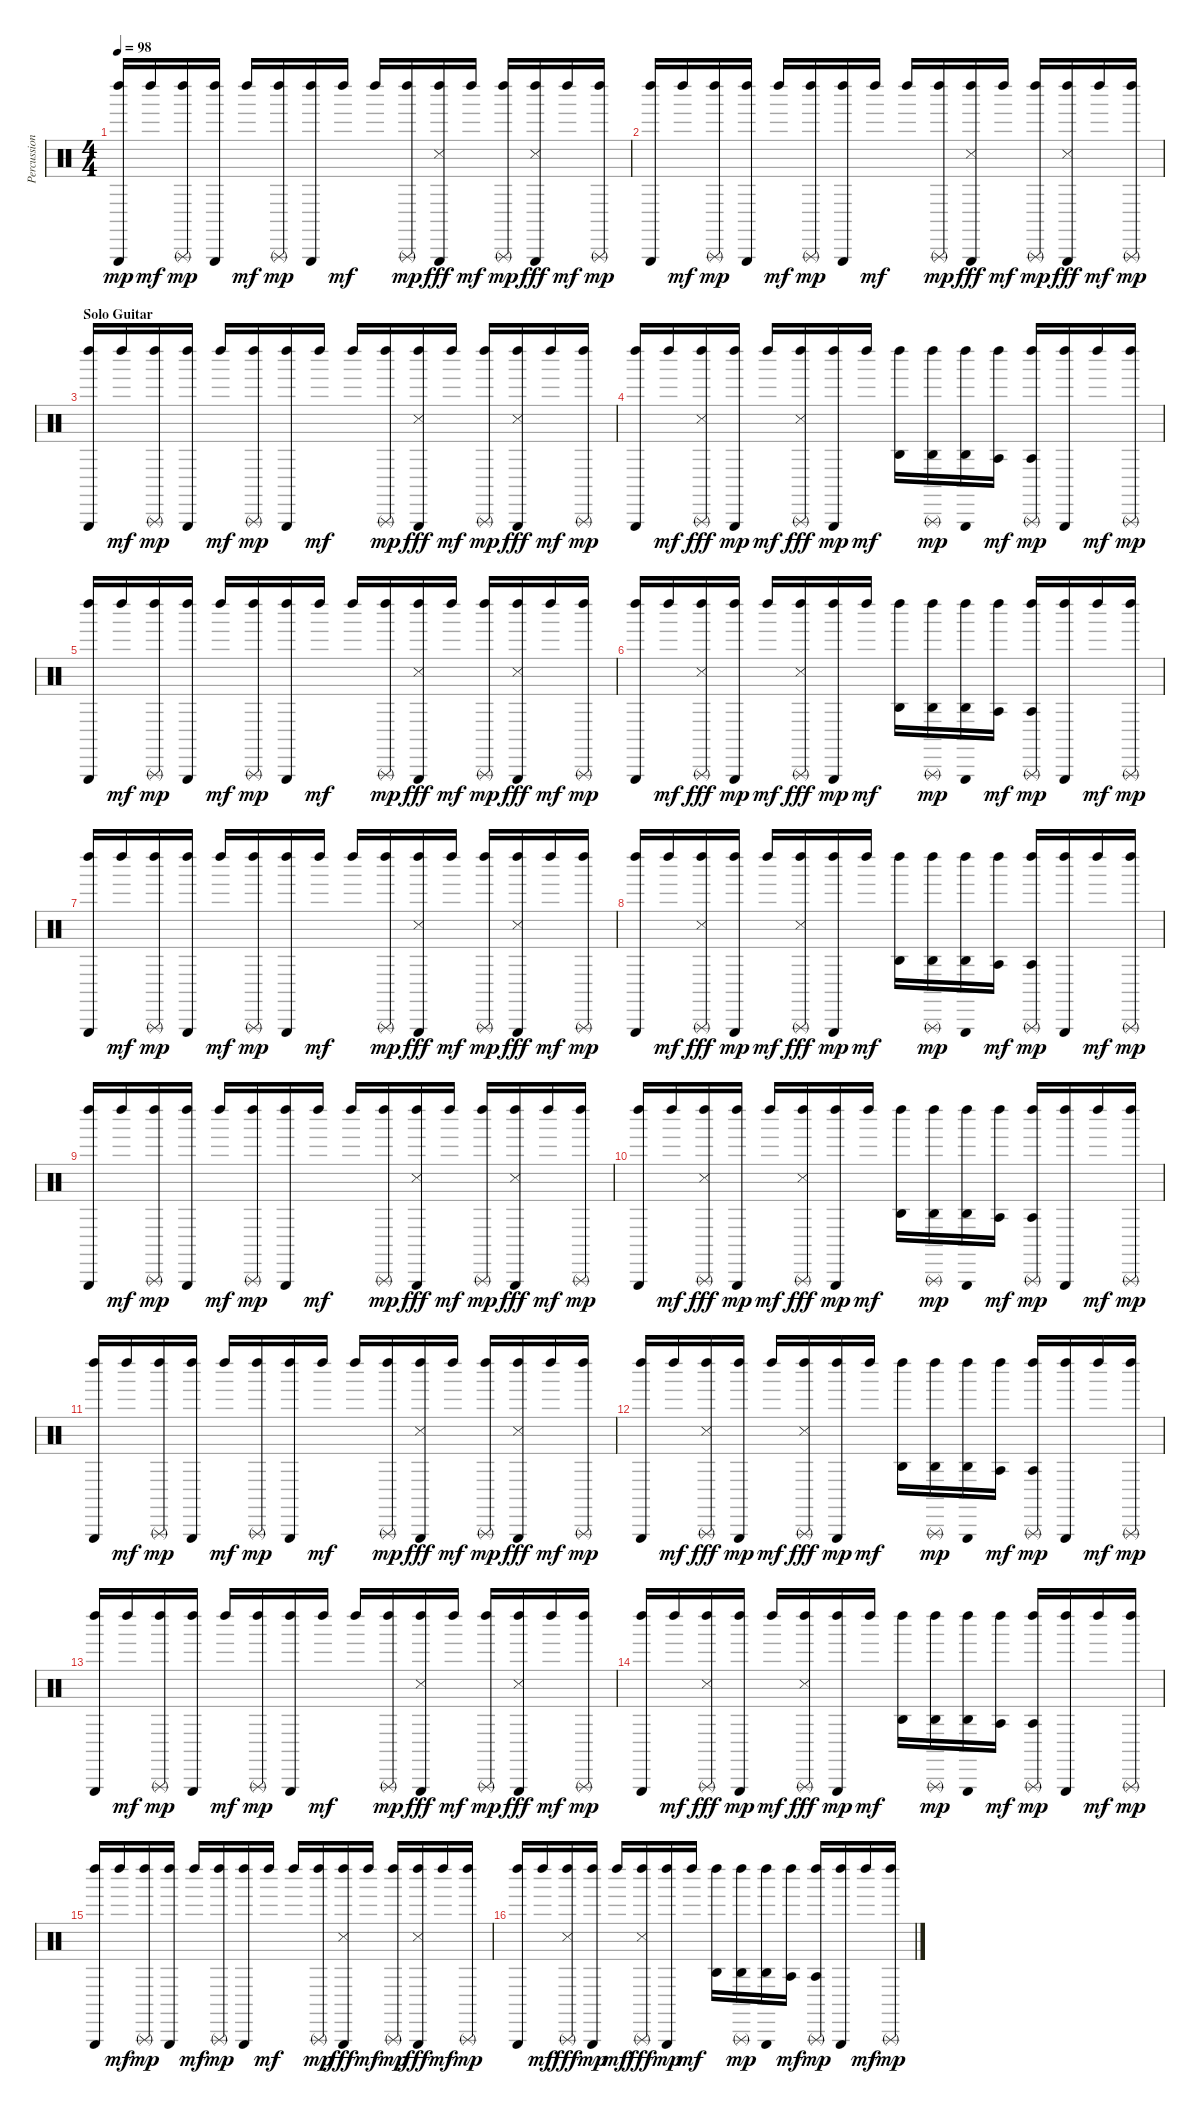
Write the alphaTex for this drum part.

\track ("Percussions" "Percussion") {instrument percussion}
\staff {score}
\articulation defaults
\ts (4 4)
\tempo 98
\clef neutral
\ks c
("Left Maraca (hit)" "Triangle (hit)").16{dy mp} "Left Maraca (hit)".16{dy mf} ("Left Maraca (hit)" "Triangle (rnute)").16{dy mp} ("Left Maraca (hit)" "Triangle (hit)").16 "Left Maraca (hit)".16{dy mf} ("Left Maraca (hit)" "Triangle (rnute)").16{dy mp} ("Left Maraca (hit)" "Triangle (hit)").16 "Left Maraca (hit)".16{dy mf} "Left Maraca (hit)".16 ("Left Maraca (hit)" "Triangle (rnute)").16{dy mp} ("Left Maraca (hit)" "Triangle (hit)" "Snare (side stick) 3").16{dy fff} "Left Maraca (hit)".16{dy mf} ("Left Maraca (hit)" "Triangle (rnute)").16{dy mp} ("Left Maraca (hit)" "Triangle (hit)" "Snare (side stick) 3").16{dy fff} "Left Maraca (hit)".16{dy mf} ("Left Maraca (hit)" "Triangle (rnute)").16{dy mp} |
("Left Maraca (hit)" "Triangle (hit)").16 "Left Maraca (hit)".16{dy mf} ("Left Maraca (hit)" "Triangle (rnute)").16{dy mp} ("Left Maraca (hit)" "Triangle (hit)").16 "Left Maraca (hit)".16{dy mf} ("Left Maraca (hit)" "Triangle (rnute)").16{dy mp} ("Left Maraca (hit)" "Triangle (hit)").16 "Left Maraca (hit)".16{dy mf} "Left Maraca (hit)".16 ("Left Maraca (hit)" "Triangle (rnute)").16{dy mp} ("Left Maraca (hit)" "Triangle (hit)" "Snare (side stick) 3").16{dy fff} "Left Maraca (hit)".16{dy mf} ("Left Maraca (hit)" "Triangle (rnute)").16{dy mp} ("Left Maraca (hit)" "Triangle (hit)" "Snare (side stick) 3").16{dy fff} "Left Maraca (hit)".16{dy mf} ("Left Maraca (hit)" "Triangle (rnute)").16{dy mp} |
\section ("" "Solo Guitar")
("Left Maraca (hit)" "Triangle (hit)").16 "Left Maraca (hit)".16{dy mf} ("Left Maraca (hit)" "Triangle (rnute)").16{dy mp} ("Left Maraca (hit)" "Triangle (hit)").16 "Left Maraca (hit)".16{dy mf} ("Left Maraca (hit)" "Triangle (rnute)").16{dy mp} ("Left Maraca (hit)" "Triangle (hit)").16 "Left Maraca (hit)".16{dy mf} "Left Maraca (hit)".16 ("Left Maraca (hit)" "Triangle (rnute)").16{dy mp} ("Left Maraca (hit)" "Triangle (hit)" "Snare (side stick) 3").16{dy fff} "Left Maraca (hit)".16{dy mf} ("Left Maraca (hit)" "Triangle (rnute)").16{dy mp} ("Left Maraca (hit)" "Triangle (hit)" "Snare (side stick) 3").16{dy fff} "Left Maraca (hit)".16{dy mf} ("Left Maraca (hit)" "Triangle (rnute)").16{dy mp} |
("Left Maraca (hit)" "Triangle (hit)").16 "Left Maraca (hit)".16{dy mf} ("Left Maraca (hit)" "Triangle (rnute)" "Snare (side stick) 3").16{dy fff} ("Left Maraca (hit)" "Triangle (hit)").16{dy mp} "Left Maraca (hit)".16{dy mf} ("Left Maraca (hit)" "Triangle (rnute)" "Snare (side stick) 3").16{dy fff} ("Left Maraca (hit)" "Triangle (hit)").16{dy mp} "Left Maraca (hit)".16{dy mf} ("Left Maraca (hit)" "Agogo high (hit)").16 ("Left Maraca (hit)" "Triangle (rnute)" "Agogo high (hit)").16{dy mp} ("Left Maraca (hit)" "Triangle (hit)" "Agogo high (hit)").16 ("Left Maraca (hit)" "Agogo tow (hit)").16{dy mf} ("Left Maraca (hit)" "Triangle (rnute)" "Agogo tow (hit)").16{dy mp} ("Left Maraca (hit)" "Triangle (hit)").16 "Left Maraca (hit)".16{dy mf} ("Left Maraca (hit)" "Triangle (rnute)").16{dy mp} |
("Left Maraca (hit)" "Triangle (hit)").16 "Left Maraca (hit)".16{dy mf} ("Left Maraca (hit)" "Triangle (rnute)").16{dy mp} ("Left Maraca (hit)" "Triangle (hit)").16 "Left Maraca (hit)".16{dy mf} ("Left Maraca (hit)" "Triangle (rnute)").16{dy mp} ("Left Maraca (hit)" "Triangle (hit)").16 "Left Maraca (hit)".16{dy mf} "Left Maraca (hit)".16 ("Left Maraca (hit)" "Triangle (rnute)").16{dy mp} ("Left Maraca (hit)" "Triangle (hit)" "Snare (side stick) 3").16{dy fff} "Left Maraca (hit)".16{dy mf} ("Left Maraca (hit)" "Triangle (rnute)").16{dy mp} ("Left Maraca (hit)" "Triangle (hit)" "Snare (side stick) 3").16{dy fff} "Left Maraca (hit)".16{dy mf} ("Left Maraca (hit)" "Triangle (rnute)").16{dy mp} |
("Left Maraca (hit)" "Triangle (hit)").16 "Left Maraca (hit)".16{dy mf} ("Left Maraca (hit)" "Triangle (rnute)" "Snare (side stick) 3").16{dy fff} ("Left Maraca (hit)" "Triangle (hit)").16{dy mp} "Left Maraca (hit)".16{dy mf} ("Left Maraca (hit)" "Triangle (rnute)" "Snare (side stick) 3").16{dy fff} ("Left Maraca (hit)" "Triangle (hit)").16{dy mp} "Left Maraca (hit)".16{dy mf} ("Left Maraca (hit)" "Agogo high (hit)").16 ("Left Maraca (hit)" "Triangle (rnute)" "Agogo high (hit)").16{dy mp} ("Left Maraca (hit)" "Triangle (hit)" "Agogo high (hit)").16 ("Left Maraca (hit)" "Agogo tow (hit)").16{dy mf} ("Left Maraca (hit)" "Triangle (rnute)" "Agogo tow (hit)").16{dy mp} ("Left Maraca (hit)" "Triangle (hit)").16 "Left Maraca (hit)".16{dy mf} ("Left Maraca (hit)" "Triangle (rnute)").16{dy mp} |
("Left Maraca (hit)" "Triangle (hit)").16 "Left Maraca (hit)".16{dy mf} ("Left Maraca (hit)" "Triangle (rnute)").16{dy mp} ("Left Maraca (hit)" "Triangle (hit)").16 "Left Maraca (hit)".16{dy mf} ("Left Maraca (hit)" "Triangle (rnute)").16{dy mp} ("Left Maraca (hit)" "Triangle (hit)").16 "Left Maraca (hit)".16{dy mf} "Left Maraca (hit)".16 ("Left Maraca (hit)" "Triangle (rnute)").16{dy mp} ("Left Maraca (hit)" "Triangle (hit)" "Snare (side stick) 3").16{dy fff} "Left Maraca (hit)".16{dy mf} ("Left Maraca (hit)" "Triangle (rnute)").16{dy mp} ("Left Maraca (hit)" "Triangle (hit)" "Snare (side stick) 3").16{dy fff} "Left Maraca (hit)".16{dy mf} ("Left Maraca (hit)" "Triangle (rnute)").16{dy mp} |
("Left Maraca (hit)" "Triangle (hit)").16 "Left Maraca (hit)".16{dy mf} ("Left Maraca (hit)" "Triangle (rnute)" "Snare (side stick) 3").16{dy fff} ("Left Maraca (hit)" "Triangle (hit)").16{dy mp} "Left Maraca (hit)".16{dy mf} ("Left Maraca (hit)" "Triangle (rnute)" "Snare (side stick) 3").16{dy fff} ("Left Maraca (hit)" "Triangle (hit)").16{dy mp} "Left Maraca (hit)".16{dy mf} ("Left Maraca (hit)" "Agogo high (hit)").16 ("Left Maraca (hit)" "Triangle (rnute)" "Agogo high (hit)").16{dy mp} ("Left Maraca (hit)" "Triangle (hit)" "Agogo high (hit)").16 ("Left Maraca (hit)" "Agogo tow (hit)").16{dy mf} ("Left Maraca (hit)" "Triangle (rnute)" "Agogo tow (hit)").16{dy mp} ("Left Maraca (hit)" "Triangle (hit)").16 "Left Maraca (hit)".16{dy mf} ("Left Maraca (hit)" "Triangle (rnute)").16{dy mp} |
("Left Maraca (hit)" "Triangle (hit)").16 "Left Maraca (hit)".16{dy mf} ("Left Maraca (hit)" "Triangle (rnute)").16{dy mp} ("Left Maraca (hit)" "Triangle (hit)").16 "Left Maraca (hit)".16{dy mf} ("Left Maraca (hit)" "Triangle (rnute)").16{dy mp} ("Left Maraca (hit)" "Triangle (hit)").16 "Left Maraca (hit)".16{dy mf} "Left Maraca (hit)".16 ("Left Maraca (hit)" "Triangle (rnute)").16{dy mp} ("Left Maraca (hit)" "Triangle (hit)" "Snare (side stick) 3").16{dy fff} "Left Maraca (hit)".16{dy mf} ("Left Maraca (hit)" "Triangle (rnute)").16{dy mp} ("Left Maraca (hit)" "Triangle (hit)" "Snare (side stick) 3").16{dy fff} "Left Maraca (hit)".16{dy mf} ("Left Maraca (hit)" "Triangle (rnute)").16{dy mp} |
("Left Maraca (hit)" "Triangle (hit)").16 "Left Maraca (hit)".16{dy mf} ("Left Maraca (hit)" "Triangle (rnute)" "Snare (side stick) 3").16{dy fff} ("Left Maraca (hit)" "Triangle (hit)").16{dy mp} "Left Maraca (hit)".16{dy mf} ("Left Maraca (hit)" "Triangle (rnute)" "Snare (side stick) 3").16{dy fff} ("Left Maraca (hit)" "Triangle (hit)").16{dy mp} "Left Maraca (hit)".16{dy mf} ("Left Maraca (hit)" "Agogo high (hit)").16 ("Left Maraca (hit)" "Triangle (rnute)" "Agogo high (hit)").16{dy mp} ("Left Maraca (hit)" "Triangle (hit)" "Agogo high (hit)").16 ("Left Maraca (hit)" "Agogo tow (hit)").16{dy mf} ("Left Maraca (hit)" "Triangle (rnute)" "Agogo tow (hit)").16{dy mp} ("Left Maraca (hit)" "Triangle (hit)").16 "Left Maraca (hit)".16{dy mf} ("Left Maraca (hit)" "Triangle (rnute)").16{dy mp} |
("Left Maraca (hit)" "Triangle (hit)").16 "Left Maraca (hit)".16{dy mf} ("Left Maraca (hit)" "Triangle (rnute)").16{dy mp} ("Left Maraca (hit)" "Triangle (hit)").16 "Left Maraca (hit)".16{dy mf} ("Left Maraca (hit)" "Triangle (rnute)").16{dy mp} ("Left Maraca (hit)" "Triangle (hit)").16 "Left Maraca (hit)".16{dy mf} "Left Maraca (hit)".16 ("Left Maraca (hit)" "Triangle (rnute)").16{dy mp} ("Left Maraca (hit)" "Triangle (hit)" "Snare (side stick) 3").16{dy fff} "Left Maraca (hit)".16{dy mf} ("Left Maraca (hit)" "Triangle (rnute)").16{dy mp} ("Left Maraca (hit)" "Triangle (hit)" "Snare (side stick) 3").16{dy fff} "Left Maraca (hit)".16{dy mf} ("Left Maraca (hit)" "Triangle (rnute)").16{dy mp} |
("Left Maraca (hit)" "Triangle (hit)").16 "Left Maraca (hit)".16{dy mf} ("Left Maraca (hit)" "Triangle (rnute)" "Snare (side stick) 3").16{dy fff} ("Left Maraca (hit)" "Triangle (hit)").16{dy mp} "Left Maraca (hit)".16{dy mf} ("Left Maraca (hit)" "Triangle (rnute)" "Snare (side stick) 3").16{dy fff} ("Left Maraca (hit)" "Triangle (hit)").16{dy mp} "Left Maraca (hit)".16{dy mf} ("Left Maraca (hit)" "Agogo high (hit)").16 ("Left Maraca (hit)" "Triangle (rnute)" "Agogo high (hit)").16{dy mp} ("Left Maraca (hit)" "Triangle (hit)" "Agogo high (hit)").16 ("Left Maraca (hit)" "Agogo tow (hit)").16{dy mf} ("Left Maraca (hit)" "Triangle (rnute)" "Agogo tow (hit)").16{dy mp} ("Left Maraca (hit)" "Triangle (hit)").16 "Left Maraca (hit)".16{dy mf} ("Left Maraca (hit)" "Triangle (rnute)").16{dy mp} |
("Left Maraca (hit)" "Triangle (hit)").16 "Left Maraca (hit)".16{dy mf} ("Left Maraca (hit)" "Triangle (rnute)").16{dy mp} ("Left Maraca (hit)" "Triangle (hit)").16 "Left Maraca (hit)".16{dy mf} ("Left Maraca (hit)" "Triangle (rnute)").16{dy mp} ("Left Maraca (hit)" "Triangle (hit)").16 "Left Maraca (hit)".16{dy mf} "Left Maraca (hit)".16 ("Left Maraca (hit)" "Triangle (rnute)").16{dy mp} ("Left Maraca (hit)" "Triangle (hit)" "Snare (side stick) 3").16{dy fff} "Left Maraca (hit)".16{dy mf} ("Left Maraca (hit)" "Triangle (rnute)").16{dy mp} ("Left Maraca (hit)" "Triangle (hit)" "Snare (side stick) 3").16{dy fff} "Left Maraca (hit)".16{dy mf} ("Left Maraca (hit)" "Triangle (rnute)").16{dy mp} |
("Left Maraca (hit)" "Triangle (hit)").16 "Left Maraca (hit)".16{dy mf} ("Left Maraca (hit)" "Triangle (rnute)" "Snare (side stick) 3").16{dy fff} ("Left Maraca (hit)" "Triangle (hit)").16{dy mp} "Left Maraca (hit)".16{dy mf} ("Left Maraca (hit)" "Triangle (rnute)" "Snare (side stick) 3").16{dy fff} ("Left Maraca (hit)" "Triangle (hit)").16{dy mp} "Left Maraca (hit)".16{dy mf} ("Left Maraca (hit)" "Agogo high (hit)").16 ("Left Maraca (hit)" "Triangle (rnute)" "Agogo high (hit)").16{dy mp} ("Left Maraca (hit)" "Triangle (hit)" "Agogo high (hit)").16 ("Left Maraca (hit)" "Agogo tow (hit)").16{dy mf} ("Left Maraca (hit)" "Triangle (rnute)" "Agogo tow (hit)").16{dy mp} ("Left Maraca (hit)" "Triangle (hit)").16 "Left Maraca (hit)".16{dy mf} ("Left Maraca (hit)" "Triangle (rnute)").16{dy mp} |
("Left Maraca (hit)" "Triangle (hit)").16 "Left Maraca (hit)".16{dy mf} ("Left Maraca (hit)" "Triangle (rnute)").16{dy mp} ("Left Maraca (hit)" "Triangle (hit)").16 "Left Maraca (hit)".16{dy mf} ("Left Maraca (hit)" "Triangle (rnute)").16{dy mp} ("Left Maraca (hit)" "Triangle (hit)").16 "Left Maraca (hit)".16{dy mf} "Left Maraca (hit)".16 ("Left Maraca (hit)" "Triangle (rnute)").16{dy mp} ("Left Maraca (hit)" "Triangle (hit)" "Snare (side stick) 3").16{dy fff} "Left Maraca (hit)".16{dy mf} ("Left Maraca (hit)" "Triangle (rnute)").16{dy mp} ("Left Maraca (hit)" "Triangle (hit)" "Snare (side stick) 3").16{dy fff} "Left Maraca (hit)".16{dy mf} ("Left Maraca (hit)" "Triangle (rnute)").16{dy mp} |
("Left Maraca (hit)" "Triangle (hit)").16 "Left Maraca (hit)".16{dy mf} ("Left Maraca (hit)" "Triangle (rnute)" "Snare (side stick) 3").16{dy fff} ("Left Maraca (hit)" "Triangle (hit)").16{dy mp} "Left Maraca (hit)".16{dy mf} ("Left Maraca (hit)" "Triangle (rnute)" "Snare (side stick) 3").16{dy fff} ("Left Maraca (hit)" "Triangle (hit)").16{dy mp} "Left Maraca (hit)".16{dy mf} ("Left Maraca (hit)" "Agogo high (hit)").16 ("Left Maraca (hit)" "Triangle (rnute)" "Agogo high (hit)").16{dy mp} ("Left Maraca (hit)" "Triangle (hit)" "Agogo high (hit)").16 ("Left Maraca (hit)" "Agogo tow (hit)").16{dy mf} ("Left Maraca (hit)" "Triangle (rnute)" "Agogo tow (hit)").16{dy mp} ("Left Maraca (hit)" "Triangle (hit)").16 "Left Maraca (hit)".16{dy mf} ("Left Maraca (hit)" "Triangle (rnute)").16{dy mp}
